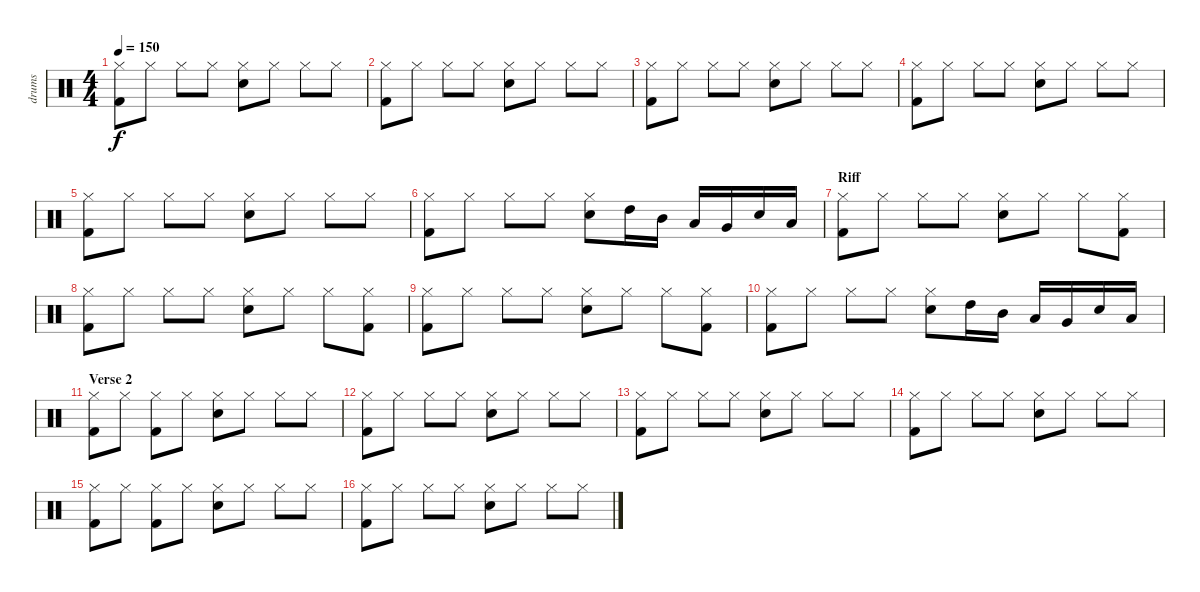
\track ("drums" "drums") {instrument percussion}
\staff {score}
\articulation defaults
\ts (4 4)
\tempo 150
\clef neutral
\ks c
("Hi-Hat (closed)" "Kick (hit) 2").8{dy f} "Hi-Hat (closed)".8 "Hi-Hat (closed)".8 "Hi-Hat (closed)".8 ("Hi-Hat (closed)" "Snare (hit) 2").8 "Hi-Hat (closed)".8 "Hi-Hat (closed)".8 "Hi-Hat (closed)".8 |
("Hi-Hat (closed)" "Kick (hit) 2").8 "Hi-Hat (closed)".8 "Hi-Hat (closed)".8 "Hi-Hat (closed)".8 ("Hi-Hat (closed)" "Snare (hit) 2").8 "Hi-Hat (closed)".8 "Hi-Hat (closed)".8 "Hi-Hat (closed)".8 |
("Hi-Hat (closed)" "Kick (hit) 2").8 "Hi-Hat (closed)".8 "Hi-Hat (closed)".8 "Hi-Hat (closed)".8 ("Hi-Hat (closed)" "Snare (hit) 2").8 "Hi-Hat (closed)".8 "Hi-Hat (closed)".8 "Hi-Hat (closed)".8 |
("Hi-Hat (closed)" "Kick (hit) 2").8 "Hi-Hat (closed)".8 "Hi-Hat (closed)".8 "Hi-Hat (closed)".8 ("Hi-Hat (closed)" "Snare (hit) 2").8 "Hi-Hat (closed)".8 "Hi-Hat (closed)".8 "Hi-Hat (closed)".8 |
("Hi-Hat (closed)" "Kick (hit) 2").8 "Hi-Hat (closed)".8 "Hi-Hat (closed)".8 "Hi-Hat (closed)".8 ("Hi-Hat (closed)" "Snare (hit) 2").8 "Hi-Hat (closed)".8 "Hi-Hat (closed)".8 "Hi-Hat (closed)".8 |
("Hi-Hat (closed)" "Kick (hit) 2").8 "Hi-Hat (closed)".8 "Hi-Hat (closed)".8 "Hi-Hat (closed)".8 ("Hi-Hat (closed)" "Snare (hit) 2").8 "High Tom (hit)".16 "Mid Tom (hit)".16 "Low Tom (hit)".16 "Very Low Tom (hit)".16 "Snare (hit) 2".16 "Low Floor Tom (hit)".16 |
\section ("" "Riff")
("Hi-Hat (closed)" "Kick (hit) 2").8 "Hi-Hat (closed)".8 "Hi-Hat (closed)".8 "Hi-Hat (closed)".8 ("Hi-Hat (closed)" "Snare (hit) 2").8 "Hi-Hat (closed)".8 "Hi-Hat (closed)".8 ("Hi-Hat (closed)" "Kick (hit) 2").8 |
("Hi-Hat (closed)" "Kick (hit) 2").8 "Hi-Hat (closed)".8 "Hi-Hat (closed)".8 "Hi-Hat (closed)".8 ("Hi-Hat (closed)" "Snare (hit) 2").8 "Hi-Hat (closed)".8 "Hi-Hat (closed)".8 ("Hi-Hat (closed)" "Kick (hit) 2").8 |
("Hi-Hat (closed)" "Kick (hit) 2").8 "Hi-Hat (closed)".8 "Hi-Hat (closed)".8 "Hi-Hat (closed)".8 ("Hi-Hat (closed)" "Snare (hit) 2").8 "Hi-Hat (closed)".8 "Hi-Hat (closed)".8 ("Hi-Hat (closed)" "Kick (hit) 2").8 |
("Hi-Hat (closed)" "Kick (hit) 2").8 "Hi-Hat (closed)".8 "Hi-Hat (closed)".8 "Hi-Hat (closed)".8 ("Hi-Hat (closed)" "Snare (hit) 2").8 "High Tom (hit)".16 "Mid Tom (hit)".16 "Low Tom (hit)".16 "Very Low Tom (hit)".16 "Snare (hit) 2".16 "Low Floor Tom (hit)".16 |
\section ("" "Verse 2")
("Hi-Hat (closed)" "Kick (hit) 2").8 "Hi-Hat (closed)".8 ("Hi-Hat (closed)" "Kick (hit) 2").8 "Hi-Hat (closed)".8 ("Hi-Hat (closed)" "Snare (hit) 2").8 "Hi-Hat (closed)".8 "Hi-Hat (closed)".8 "Hi-Hat (closed)".8 |
("Hi-Hat (closed)" "Kick (hit) 2").8 "Hi-Hat (closed)".8 "Hi-Hat (closed)".8 "Hi-Hat (closed)".8 ("Hi-Hat (closed)" "Snare (hit) 2").8 "Hi-Hat (closed)".8 "Hi-Hat (closed)".8 "Hi-Hat (closed)".8 |
("Hi-Hat (closed)" "Kick (hit) 2").8 "Hi-Hat (closed)".8 "Hi-Hat (closed)".8 "Hi-Hat (closed)".8 ("Hi-Hat (closed)" "Snare (hit) 2").8 "Hi-Hat (closed)".8 "Hi-Hat (closed)".8 "Hi-Hat (closed)".8 |
("Hi-Hat (closed)" "Kick (hit) 2").8 "Hi-Hat (closed)".8 "Hi-Hat (closed)".8 "Hi-Hat (closed)".8 ("Hi-Hat (closed)" "Snare (hit) 2").8 "Hi-Hat (closed)".8 "Hi-Hat (closed)".8 "Hi-Hat (closed)".8 |
("Hi-Hat (closed)" "Kick (hit) 2").8 "Hi-Hat (closed)".8 ("Hi-Hat (closed)" "Kick (hit) 2").8 "Hi-Hat (closed)".8 ("Hi-Hat (closed)" "Snare (hit) 2").8 "Hi-Hat (closed)".8 "Hi-Hat (closed)".8 "Hi-Hat (closed)".8 |
("Hi-Hat (closed)" "Kick (hit) 2").8 "Hi-Hat (closed)".8 "Hi-Hat (closed)".8 "Hi-Hat (closed)".8 ("Hi-Hat (closed)" "Snare (hit) 2").8 "Hi-Hat (closed)".8 "Hi-Hat (closed)".8 "Hi-Hat (closed)".8
